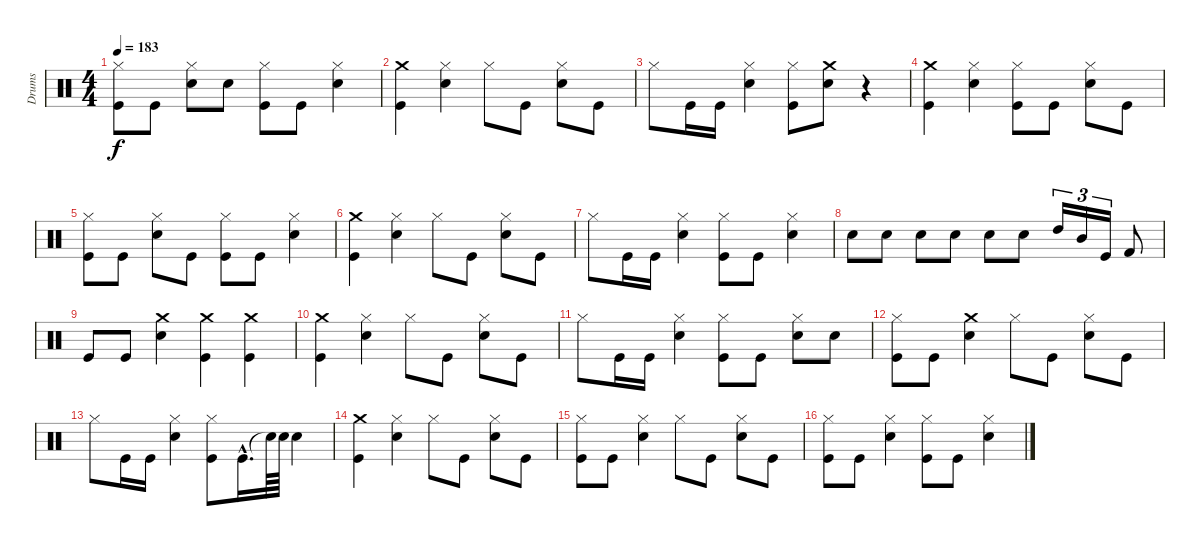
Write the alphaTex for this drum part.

\track ("Drums" "Drums") {instrument percussion}
\staff {score}
\articulation defaults
\ts (4 4)
\tempo 183
\clef neutral
\ks c
("Kick (hit)" "Hi-Hat (closed)").8{dy f} "Kick (hit)".8 ("Snare (hit) 2" "Hi-Hat (closed)").8 "Snare (hit) 2".8 ("Kick (hit)" "Hi-Hat (closed)").8 "Kick (hit)".8 ("Snare (hit) 2" "Hi-Hat (closed)").4 |
("Kick (hit)" "Crash medium (hit)").4 ("Hi-Hat (closed)" "Snare (hit) 2").4 "Hi-Hat (closed)".8 "Kick (hit)".8 ("Snare (hit) 2" "Hi-Hat (closed)").8 "Kick (hit)".8 |
"Hi-Hat (closed)".8 "Kick (hit)".16 "Kick (hit)".16 ("Snare (hit) 2" "Hi-Hat (closed)").4 ("Kick (hit)" "Hi-Hat (closed)").8 ("Crash medium (hit)" "Snare (hit) 2").8 r.4 |
("Kick (hit)" "Crash medium (hit)").4 ("Hi-Hat (closed)" "Snare (hit) 2").4 ("Kick (hit)" "Hi-Hat (closed)").8 "Kick (hit)".8 ("Snare (hit) 2" "Hi-Hat (closed)").8 "Kick (hit)".8 |
("Hi-Hat (closed)" "Kick (hit)").8 "Kick (hit)".8 ("Snare (hit) 2" "Hi-Hat (closed)").8 "Kick (hit)".8 ("Hi-Hat (closed)" "Kick (hit)").8 "Kick (hit)".8 ("Snare (hit) 2" "Hi-Hat (closed)").4 |
("Kick (hit)" "Crash medium (hit)").4 ("Hi-Hat (closed)" "Snare (hit) 2").4 "Hi-Hat (closed)".8 "Kick (hit)".8 ("Snare (hit) 2" "Hi-Hat (closed)").8 "Kick (hit)".8 |
"Hi-Hat (closed)".8 "Kick (hit)".16 "Kick (hit)".16 ("Snare (hit) 2" "Hi-Hat (closed)").4 ("Kick (hit)" "Hi-Hat (closed)").8 "Kick (hit)".8 ("Snare (hit) 2" "Hi-Hat (closed)").4 |
"Snare (hit) 2".8 "Snare (hit) 2".8 "Snare (hit) 2".8 "Snare (hit) 2".8 "Snare (hit) 2".8 "Snare (hit) 2".8 "High Tom (hit)".16{tu (3 2)} "Mid Tom (hit)".16{tu (3 2)} "Kick (hit)".16{tu (3 2)} "Kick (hit) 2".8 |
"Kick (hit)".8 "Kick (hit)".8 ("Crash medium (hit)" "Snare (hit) 2").4 ("Crash medium (hit)" "Kick (hit)").4 ("Crash medium (hit)" "Kick (hit)").4 |
("Kick (hit)" "Crash medium (hit)").4 ("Hi-Hat (closed)" "Snare (hit) 2").4 "Hi-Hat (closed)".8 "Kick (hit)".8 ("Snare (hit) 2" "Hi-Hat (closed)").8 "Kick (hit)".8 |
"Hi-Hat (closed)".8 "Kick (hit)".16 "Kick (hit)".16 ("Snare (hit) 2" "Hi-Hat (closed)").4 ("Hi-Hat (closed)" "Kick (hit)").8 "Kick (hit)".8 ("Snare (hit) 2" "Hi-Hat (closed)").8 "Snare (hit) 2".8 |
("Hi-Hat (closed)" "Kick (hit)").8 "Kick (hit)".8 ("Crash medium (hit)" "Snare (hit) 2").4 "Hi-Hat (closed)".8 "Kick (hit)".8 ("Snare (hit) 2" "Hi-Hat (closed)").8 "Kick (hit)".8 |
"Hi-Hat (closed)".8 "Kick (hit)".16 "Kick (hit)".16 ("Snare (hit) 2" "Hi-Hat (closed)").4 ("Hi-Hat (closed)" "Kick (hit)").8 "Kick (hit)"{hac}.16{d} "Snare (hit)"{t}.64 "Snare (hit) 2".64 "Snare (hit) 2".4 |
("Kick (hit)" "Crash medium (hit)").4 ("Hi-Hat (closed)" "Snare (hit) 2").4 "Hi-Hat (closed)".8 "Kick (hit)".8 ("Snare (hit) 2" "Hi-Hat (closed)").8 "Kick (hit)".8 |
("Kick (hit)" "Hi-Hat (closed)").8 "Kick (hit)".8 ("Snare (hit) 2" "Hi-Hat (closed)").4 "Hi-Hat (closed)".8 "Kick (hit)".8 ("Snare (hit) 2" "Hi-Hat (closed)").8 "Kick (hit)".8 |
("Kick (hit)" "Hi-Hat (closed)").8 "Kick (hit)".8 ("Snare (hit) 2" "Hi-Hat (closed)").4 ("Kick (hit)" "Hi-Hat (closed)").8 "Kick (hit)".8 ("Snare (hit) 2" "Hi-Hat (closed)").4
